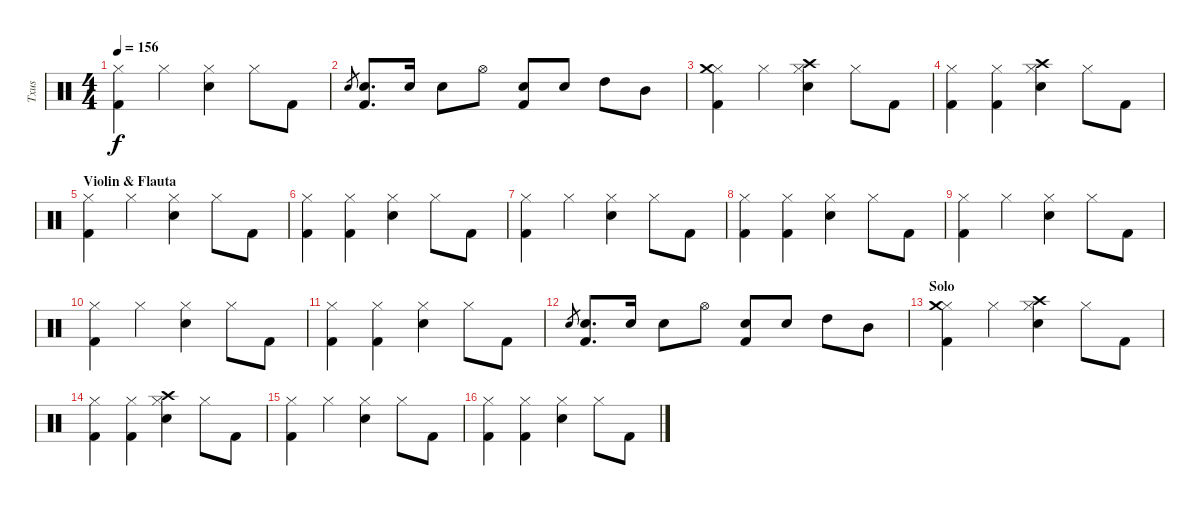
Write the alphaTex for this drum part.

\track ("Txus" "Txus") {instrument percussion}
\staff {score}
\articulation defaults
\ts (4 4)
\tempo 156
\clef neutral
\ks c
("Hi-Hat (closed)" "Kick (hit) 2").4{dy f} "Hi-Hat (closed)".4 ("Snare (hit) 2" "Hi-Hat (closed)").4 "Hi-Hat (closed)".8 "Kick (hit) 2".8 |
"Snare (hit) 2".8{gr} ("Kick (hit) 2" "Snare (hit) 2").8{d} "Snare (hit) 2".16 "Snare (hit) 2".8 "Hi-Hat (open)".8 ("Kick (hit) 2" "Snare (hit) 2").8 "Snare (hit) 2".8 "High Tom (hit)".8 "Mid Tom (hit)".8 |
("Hi-Hat (closed)" "Crash medium (hit)" "Kick (hit) 2").4 "Hi-Hat (closed)".4 ("Snare (hit) 2" "Crash high (hit)" "Hi-Hat (closed)").4 "Hi-Hat (closed)".8 "Kick (hit) 2".8 |
("Kick (hit) 2" "Hi-Hat (closed)").4 ("Hi-Hat (closed)" "Kick (hit) 2").4 ("Hi-Hat (closed)" "Snare (hit) 2" "Crash high (hit)").4 "Hi-Hat (closed)".8 "Kick (hit) 2".8 |
\section ("" "Violin & Flauta")
("Hi-Hat (closed)" "Kick (hit) 2").4 "Hi-Hat (closed)".4 ("Snare (hit) 2" "Hi-Hat (closed)").4 "Hi-Hat (closed)".8 "Kick (hit) 2".8 |
("Kick (hit) 2" "Hi-Hat (closed)").4 ("Hi-Hat (closed)" "Kick (hit) 2").4 ("Hi-Hat (closed)" "Snare (hit) 2").4 "Hi-Hat (closed)".8 "Kick (hit) 2".8 |
("Hi-Hat (closed)" "Kick (hit) 2").4 "Hi-Hat (closed)".4 ("Snare (hit) 2" "Hi-Hat (closed)").4 "Hi-Hat (closed)".8 "Kick (hit) 2".8 |
("Kick (hit) 2" "Hi-Hat (closed)").4 ("Hi-Hat (closed)" "Kick (hit) 2").4 ("Hi-Hat (closed)" "Snare (hit) 2").4 "Hi-Hat (closed)".8 "Kick (hit) 2".8 |
("Hi-Hat (closed)" "Kick (hit) 2").4 "Hi-Hat (closed)".4 ("Snare (hit) 2" "Hi-Hat (closed)").4 "Hi-Hat (closed)".8 "Kick (hit) 2".8 |
("Hi-Hat (closed)" "Kick (hit) 2").4 "Hi-Hat (closed)".4 ("Snare (hit) 2" "Hi-Hat (closed)").4 "Hi-Hat (closed)".8 "Kick (hit) 2".8 |
("Kick (hit) 2" "Hi-Hat (closed)").4 ("Hi-Hat (closed)" "Kick (hit) 2").4 ("Hi-Hat (closed)" "Snare (hit) 2").4 "Hi-Hat (closed)".8 "Kick (hit) 2".8 |
"Snare (hit) 2".8{gr} ("Kick (hit) 2" "Snare (hit) 2").8{d} "Snare (hit) 2".16 "Snare (hit) 2".8 "Hi-Hat (open)".8 ("Kick (hit) 2" "Snare (hit) 2").8 "Snare (hit) 2".8 "High Tom (hit)".8 "Mid Tom (hit)".8 |
\section ("" "Solo")
("Hi-Hat (closed)" "Crash medium (hit)" "Kick (hit) 2").4 "Hi-Hat (closed)".4 ("Snare (hit) 2" "Crash high (hit)" "Hi-Hat (closed)").4 "Hi-Hat (closed)".8 "Kick (hit) 2".8 |
("Kick (hit) 2" "Hi-Hat (closed)").4 ("Hi-Hat (closed)" "Kick (hit) 2").4 ("Hi-Hat (closed)" "Snare (hit) 2" "Crash high (hit)").4 "Hi-Hat (closed)".8 "Kick (hit) 2".8 |
("Hi-Hat (closed)" "Kick (hit) 2").4 "Hi-Hat (closed)".4 ("Snare (hit) 2" "Hi-Hat (closed)").4 "Hi-Hat (closed)".8 "Kick (hit) 2".8 |
("Kick (hit) 2" "Hi-Hat (closed)").4 ("Hi-Hat (closed)" "Kick (hit) 2").4 ("Hi-Hat (closed)" "Snare (hit) 2").4 "Hi-Hat (closed)".8 "Kick (hit) 2".8
